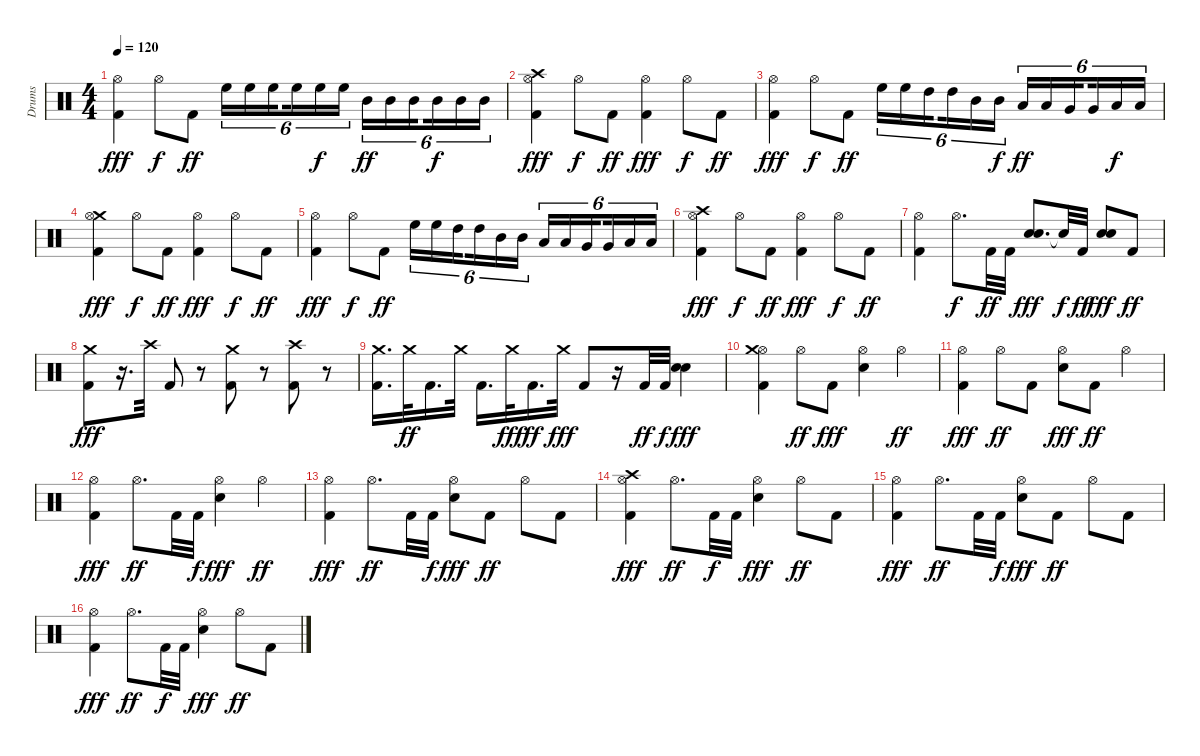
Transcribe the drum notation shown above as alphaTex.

\track ("Drums" "Drums") {instrument percussion}
\staff {score}
\articulation defaults
\ts (4 4)
\tempo 120
\clef neutral
\ks c
("Hi-Hat (open)" "Kick (hit) 2").4{dy fff} "Hi-Hat (open)".8{dy f} "Kick (hit) 2".8{dy ff} "High Floor Tom (hit)".16{tu (6 4)} "High Floor Tom (hit)".16{tu (6 4)} "High Floor Tom (hit)".16{tu (6 4) beam splitsecondary} "High Floor Tom (hit)".16{tu (6 4)} "High Floor Tom (hit)".16{tu (6 4) dy f} "High Floor Tom (hit)".16{tu (6 4)} "Mid Tom (hit)".16{tu (6 4) dy ff} "Mid Tom (hit)".16{tu (6 4)} "Mid Tom (hit)".16{tu (6 4) beam splitsecondary} "Mid Tom (hit)".16{tu (6 4) dy f} "Mid Tom (hit)".16{tu (6 4)} "Mid Tom (hit)".16{tu (6 4)} |
("Crash high (hit)" "Hi-Hat (open)" "Kick (hit) 2").4{dy fff} "Hi-Hat (open)".8{dy f} "Kick (hit) 2".8{dy ff} ("Hi-Hat (open)" "Kick (hit) 2").4{dy fff} "Hi-Hat (open)".8{dy f} "Kick (hit) 2".8{dy ff} |
("Hi-Hat (open)" "Kick (hit) 2").4{dy fff} "Hi-Hat (open)".8{dy f} "Kick (hit) 2".8{dy ff} "High Floor Tom (hit)".16{tu (6 4)} "High Floor Tom (hit)".16{tu (6 4)} "High Tom (hit)".16{tu (6 4) beam splitsecondary} "High Tom (hit)".16{tu (6 4)} "Mid Tom (hit)".16{tu (6 4)} "Mid Tom (hit)".16{tu (6 4) dy f} "Low Tom (hit)".16{tu (6 4) dy ff} "Low Tom (hit)".16{tu (6 4)} "Very Low Tom (hit)".16{tu (6 4) beam splitsecondary} "Very Low Tom (hit)".16{tu (6 4)} "Low Floor Tom (hit)".16{tu (6 4) dy f} "Low Floor Tom (hit)".16{tu (6 4)} |
("Crash medium (hit)" "Hi-Hat (open)" "Kick (hit) 2").4{dy fff} "Hi-Hat (open)".8{dy f} "Kick (hit) 2".8{dy ff} ("Hi-Hat (open)" "Kick (hit) 2").4{dy fff} "Hi-Hat (open)".8{dy f} "Kick (hit) 2".8{dy ff} |
("Hi-Hat (open)" "Kick (hit) 2").4{dy fff} "Hi-Hat (open)".8{dy f} "Kick (hit) 2".8{dy ff} "High Floor Tom (hit)".16{tu (6 4)} "High Floor Tom (hit)".16{tu (6 4)} "High Tom (hit)".16{tu (6 4) beam splitsecondary} "High Tom (hit)".16{tu (6 4)} "Mid Tom (hit)".16{tu (6 4)} "Mid Tom (hit)".16{tu (6 4)} "Low Tom (hit)".16{tu (6 4)} "Low Tom (hit)".16{tu (6 4)} "Very Low Tom (hit)".16{tu (6 4) beam splitsecondary} "Very Low Tom (hit)".16{tu (6 4)} "Low Floor Tom (hit)".16{tu (6 4)} "Low Floor Tom (hit)".16{tu (6 4)} |
("Hi-Hat (open)" "Kick (hit) 2" "Crash high (hit)").4{dy fff} "Hi-Hat (open)".8{dy f} "Kick (hit) 2".8{dy ff} ("Hi-Hat (open)" "Kick (hit) 2").4{dy fff} "Hi-Hat (open)".8{dy f} "Kick (hit) 2".8{dy ff} |
("Hi-Hat (open)" "Kick (hit) 2").4 "Hi-Hat (open)".8{d dy f} "Kick (hit) 2".32{dy ff} "Kick (hit) 2".32 ("Snare (hit) 2" "Electric Snare (hit)").8{d dy fff} "Snare (hit)"{t}.32{dy f} "Kick (hit) 2".32{dy ff} ("Snare (hit) 2" "Electric Snare (hit)").8{dy fff} "Kick (hit) 2".8{dy ff} |
("Crash medium (hit)" "Kick (hit) 2").8{dy fff} r.16{d} "Crash high (hit)".32 "Kick (hit) 2".8 r.8 ("Crash medium (hit)" "Kick (hit) 2").8 r.8 ("Crash high (hit)" "Kick (hit) 2").8 r.8 |
("Crash medium (hit)" "Kick (hit) 2").16{d} "Crash medium (hit)".32{dy ff} "Kick (hit) 2".16{d} "Crash medium (hit)".32 "Kick (hit) 2".16{d} "Crash medium (hit)".32{dy fff} "Kick (hit) 2".16{d dy ff} "Crash medium (hit)".32{dy fff} "Kick (hit) 2".8 r.16 "Kick (hit) 2".32{dy ff} "Kick (hit) 2".32{dy f} ("Snare (hit) 2" "Electric Snare (hit)").4{dy fff} |
("Hi-Hat (open)" "Kick (hit) 2" "Crash medium (hit)").4 "Hi-Hat (open)".8{dy ff} "Kick (hit) 2".8{dy fff} ("Hi-Hat (open)" "Snare (hit) 2").4 "Hi-Hat (open)".4{dy ff} |
("Hi-Hat (open)" "Kick (hit) 2").4{dy fff} "Hi-Hat (open)".8{dy ff} "Kick (hit) 2".8 ("Hi-Hat (open)" "Snare (hit) 2").8{dy fff} "Kick (hit) 2".8{dy ff} "Hi-Hat (open)".4 |
("Hi-Hat (open)" "Kick (hit) 2").4{dy fff} "Hi-Hat (open)".8{d dy ff} "Kick (hit) 2".32 "Kick (hit) 2".32{dy f} ("Hi-Hat (open)" "Snare (hit) 2").4{dy fff} "Hi-Hat (open)".4{dy ff} |
("Hi-Hat (open)" "Kick (hit) 2").4{dy fff} "Hi-Hat (open)".8{d dy ff} "Kick (hit) 2".32 "Kick (hit) 2".32{dy f} ("Hi-Hat (open)" "Snare (hit) 2").8{dy fff} "Kick (hit) 2".8{dy ff} "Hi-Hat (open)".8 "Kick (hit) 2".8 |
("Crash high (hit)" "Hi-Hat (open)" "Kick (hit) 2").4{dy fff} "Hi-Hat (open)".8{d dy ff} "Kick (hit) 2".32{dy f} "Kick (hit) 2".32 ("Hi-Hat (open)" "Snare (hit) 2").4{dy fff} "Hi-Hat (open)".8{dy ff} "Kick (hit) 2".8 |
("Hi-Hat (open)" "Kick (hit) 2").4{dy fff} "Hi-Hat (open)".8{d dy ff} "Kick (hit) 2".32 "Kick (hit) 2".32{dy f} ("Hi-Hat (open)" "Snare (hit) 2").8{dy fff} "Kick (hit) 2".8{dy ff} "Hi-Hat (open)".8 "Kick (hit) 2".8 |
("Hi-Hat (open)" "Kick (hit) 2").4{dy fff} "Hi-Hat (open)".8{d dy ff} "Kick (hit) 2".32{dy f} "Kick (hit) 2".32 ("Hi-Hat (open)" "Snare (hit) 2").4{dy fff} "Hi-Hat (open)".8{dy ff} "Kick (hit) 2".8
